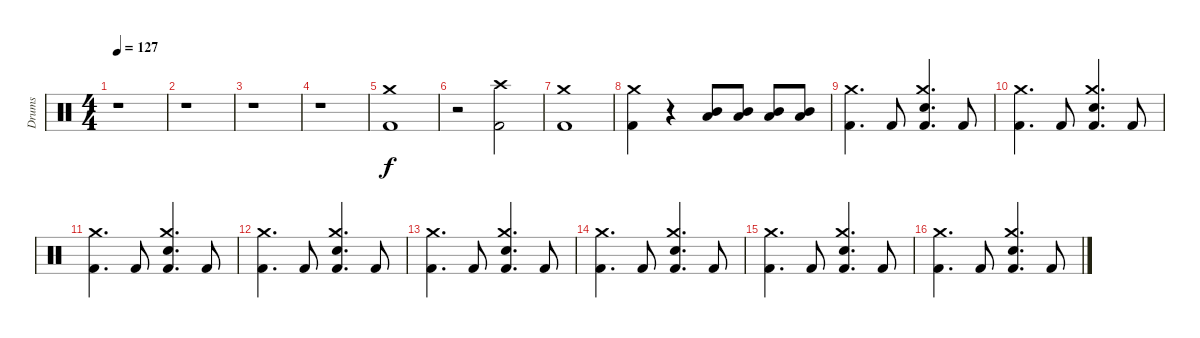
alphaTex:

\track ("Drums" "Drums") {instrument percussion}
\staff {score}
\articulation defaults
\ts (4 4)
\tempo 127
\clef neutral
\ks c
r.1{dy f} |
r.1 |
r.1 |
r.1 |
("Kick (hit) 2" "Crash medium (hit)").1 |
r.2 ("Kick (hit) 2" "Crash high (hit)").2 |
("Kick (hit) 2" "Crash medium (hit)").1 |
("Kick (hit) 2" "Crash medium (hit)").4 r.4 ("Low Tom (hit)" "Mid Tom (hit)").8 ("Low Tom (hit)" "Mid Tom (hit)").8 ("Low Tom (hit)" "Mid Tom (hit)").8 ("Low Tom (hit)" "Mid Tom (hit)").8 |
("Kick (hit) 2" "Crash medium (hit)").4{d} "Kick (hit) 2".8 ("Kick (hit) 2" "Electric Snare (hit)" "Crash medium (hit)").4{d} "Kick (hit) 2".8 |
("Kick (hit) 2" "Crash medium (hit)").4{d} "Kick (hit) 2".8 ("Kick (hit) 2" "Electric Snare (hit)" "Crash medium (hit)").4{d} "Kick (hit) 2".8 |
("Kick (hit) 2" "Crash medium (hit)").4{d} "Kick (hit) 2".8 ("Kick (hit) 2" "Electric Snare (hit)" "Crash medium (hit)").4{d} "Kick (hit) 2".8 |
("Kick (hit) 2" "Crash medium (hit)").4{d} "Kick (hit) 2".8 ("Kick (hit) 2" "Electric Snare (hit)" "Crash medium (hit)").4{d} "Kick (hit) 2".8 |
("Kick (hit) 2" "Crash medium (hit)").4{d} "Kick (hit) 2".8 ("Kick (hit) 2" "Electric Snare (hit)" "Crash medium (hit)").4{d} "Kick (hit) 2".8 |
("Kick (hit) 2" "Crash medium (hit)").4{d} "Kick (hit) 2".8 ("Kick (hit) 2" "Electric Snare (hit)" "Crash medium (hit)").4{d} "Kick (hit) 2".8 |
("Kick (hit) 2" "Crash medium (hit)").4{d} "Kick (hit) 2".8 ("Kick (hit) 2" "Electric Snare (hit)" "Crash medium (hit)").4{d} "Kick (hit) 2".8 |
("Kick (hit) 2" "Crash medium (hit)").4{d} "Kick (hit) 2".8 ("Kick (hit) 2" "Electric Snare (hit)" "Crash medium (hit)").4{d} "Kick (hit) 2".8
